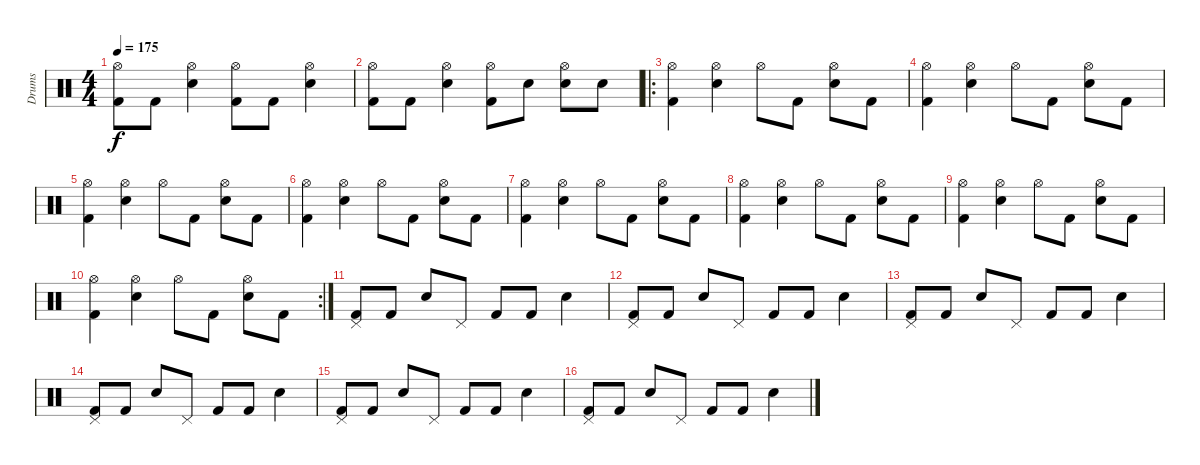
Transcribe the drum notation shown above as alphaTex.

\track ("Drums" "Drums") {instrument percussion}
\staff {score}
\articulation defaults
\ts (4 4)
\tempo 175
\clef neutral
\ks c
("Hi-Hat (open)" "Kick (hit) 2").8{dy f} "Kick (hit) 2".8 ("Hi-Hat (open)" "Snare (hit) 2").4 ("Hi-Hat (open)" "Kick (hit) 2").8 "Kick (hit) 2".8 ("Hi-Hat (open)" "Snare (hit) 2").4 |
("Hi-Hat (open)" "Kick (hit) 2").8 "Kick (hit) 2".8 ("Hi-Hat (open)" "Snare (hit) 2").4 ("Hi-Hat (open)" "Kick (hit) 2").8 "Snare (hit) 2".8 ("Hi-Hat (open)" "Snare (hit) 2").8 "Snare (hit) 2".8 |
\ro
("Hi-Hat (open)" "Kick (hit) 2").4 ("Hi-Hat (open)" "Snare (hit) 2").4 "Hi-Hat (open)".8 "Kick (hit) 2".8 ("Hi-Hat (open)" "Snare (hit) 2").8 "Kick (hit) 2".8 |
("Hi-Hat (open)" "Kick (hit) 2").4 ("Hi-Hat (open)" "Snare (hit) 2").4 "Hi-Hat (open)".8 "Kick (hit) 2".8 ("Hi-Hat (open)" "Snare (hit) 2").8 "Kick (hit) 2".8 |
("Hi-Hat (open)" "Kick (hit) 2").4 ("Hi-Hat (open)" "Snare (hit) 2").4 "Hi-Hat (open)".8 "Kick (hit) 2".8 ("Hi-Hat (open)" "Snare (hit) 2").8 "Kick (hit) 2".8 |
("Hi-Hat (open)" "Kick (hit) 2").4 ("Hi-Hat (open)" "Snare (hit) 2").4 "Hi-Hat (open)".8 "Kick (hit) 2".8 ("Hi-Hat (open)" "Snare (hit) 2").8 "Kick (hit) 2".8 |
("Hi-Hat (open)" "Kick (hit) 2").4 ("Hi-Hat (open)" "Snare (hit) 2").4 "Hi-Hat (open)".8 "Kick (hit) 2".8 ("Hi-Hat (open)" "Snare (hit) 2").8 "Kick (hit) 2".8 |
("Hi-Hat (open)" "Kick (hit) 2").4 ("Hi-Hat (open)" "Snare (hit) 2").4 "Hi-Hat (open)".8 "Kick (hit) 2".8 ("Hi-Hat (open)" "Snare (hit) 2").8 "Kick (hit) 2".8 |
("Hi-Hat (open)" "Kick (hit) 2").4 ("Hi-Hat (open)" "Snare (hit) 2").4 "Hi-Hat (open)".8 "Kick (hit) 2".8 ("Hi-Hat (open)" "Snare (hit) 2").8 "Kick (hit) 2".8 |
\rc 2
("Hi-Hat (open)" "Kick (hit) 2").4 ("Hi-Hat (open)" "Snare (hit) 2").4 "Hi-Hat (open)".8 "Kick (hit) 2".8 ("Hi-Hat (open)" "Snare (hit) 2").8 "Kick (hit) 2".8 |
("Pedal Hi-Hat (hit)" "Kick (hit) 2").8 "Kick (hit) 2".8 "Snare (hit) 2".8 "Pedal Hi-Hat (hit)".8 "Kick (hit) 2".8 "Kick (hit) 2".8 "Snare (hit) 2".4 |
("Pedal Hi-Hat (hit)" "Kick (hit) 2").8 "Kick (hit) 2".8 "Snare (hit) 2".8 "Pedal Hi-Hat (hit)".8 "Kick (hit) 2".8 "Kick (hit) 2".8 "Snare (hit) 2".4 |
("Pedal Hi-Hat (hit)" "Kick (hit) 2").8 "Kick (hit) 2".8 "Snare (hit) 2".8 "Pedal Hi-Hat (hit)".8 "Kick (hit) 2".8 "Kick (hit) 2".8 "Snare (hit) 2".4 |
("Pedal Hi-Hat (hit)" "Kick (hit) 2").8 "Kick (hit) 2".8 "Snare (hit) 2".8 "Pedal Hi-Hat (hit)".8 "Kick (hit) 2".8 "Kick (hit) 2".8 "Snare (hit) 2".4 |
("Pedal Hi-Hat (hit)" "Kick (hit) 2").8 "Kick (hit) 2".8 "Snare (hit) 2".8 "Pedal Hi-Hat (hit)".8 "Kick (hit) 2".8 "Kick (hit) 2".8 "Snare (hit) 2".4 |
("Pedal Hi-Hat (hit)" "Kick (hit) 2").8 "Kick (hit) 2".8 "Snare (hit) 2".8 "Pedal Hi-Hat (hit)".8 "Kick (hit) 2".8 "Kick (hit) 2".8 "Snare (hit) 2".4
